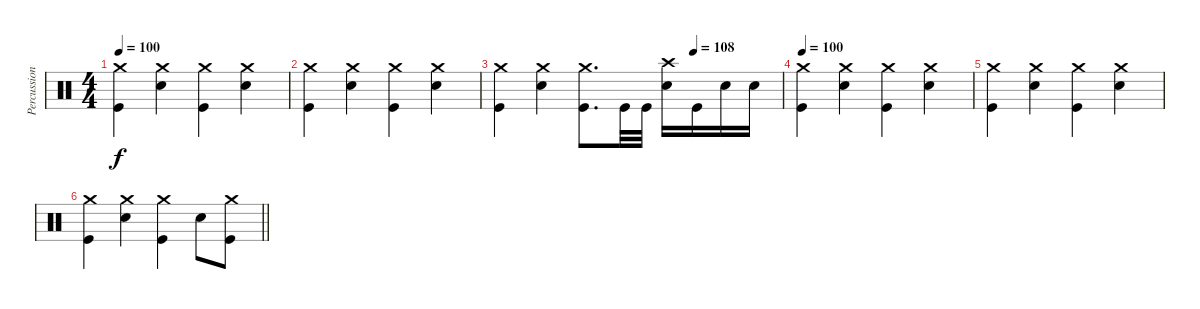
\track ("Percussion" "Percussion") {instrument percussion}
\staff {score}
\articulation defaults
\ts (4 4)
\tempo 100
\clef neutral
\ks c
("Kick (hit)" "Crash medium (hit)").4{dy f} ("Snare (hit) 2" "Crash medium (hit)").4 ("Kick (hit)" "Crash medium (hit)").4 ("Snare (hit) 2" "Crash medium (hit)").4 |
("Kick (hit)" "Crash medium (hit)").4 ("Snare (hit) 2" "Crash medium (hit)").4 ("Kick (hit)" "Crash medium (hit)").4 ("Snare (hit) 2" "Crash medium (hit)").4 |
\tempo (108 0.6875)
("Kick (hit)" "Crash medium (hit)").4 ("Snare (hit) 2" "Crash medium (hit)").4 ("Kick (hit)" "Crash medium (hit)").8{d} "Kick (hit)".32 "Kick (hit)".32 ("Snare (hit) 2" "Crash high (hit)").16 "Kick (hit)".16 "Snare (hit) 2".16 "Snare (hit) 2".16 |
\tempo 100
("Kick (hit)" "Crash medium (hit)").4 ("Snare (hit) 2" "Crash medium (hit)").4 ("Kick (hit)" "Crash medium (hit)").4 ("Snare (hit) 2" "Crash medium (hit)").4 |
("Kick (hit)" "Crash medium (hit)").4 ("Snare (hit) 2" "Crash medium (hit)").4 ("Kick (hit)" "Crash medium (hit)").4 ("Snare (hit) 2" "Crash medium (hit)").4 |
\barLineRight lightlight
("Kick (hit)" "Crash medium (hit)").4 ("Snare (hit) 2" "Crash medium (hit)").4 ("Kick (hit)" "Crash medium (hit)").4 "Snare (hit) 2".8 ("Kick (hit)" "Crash medium (hit)").8
